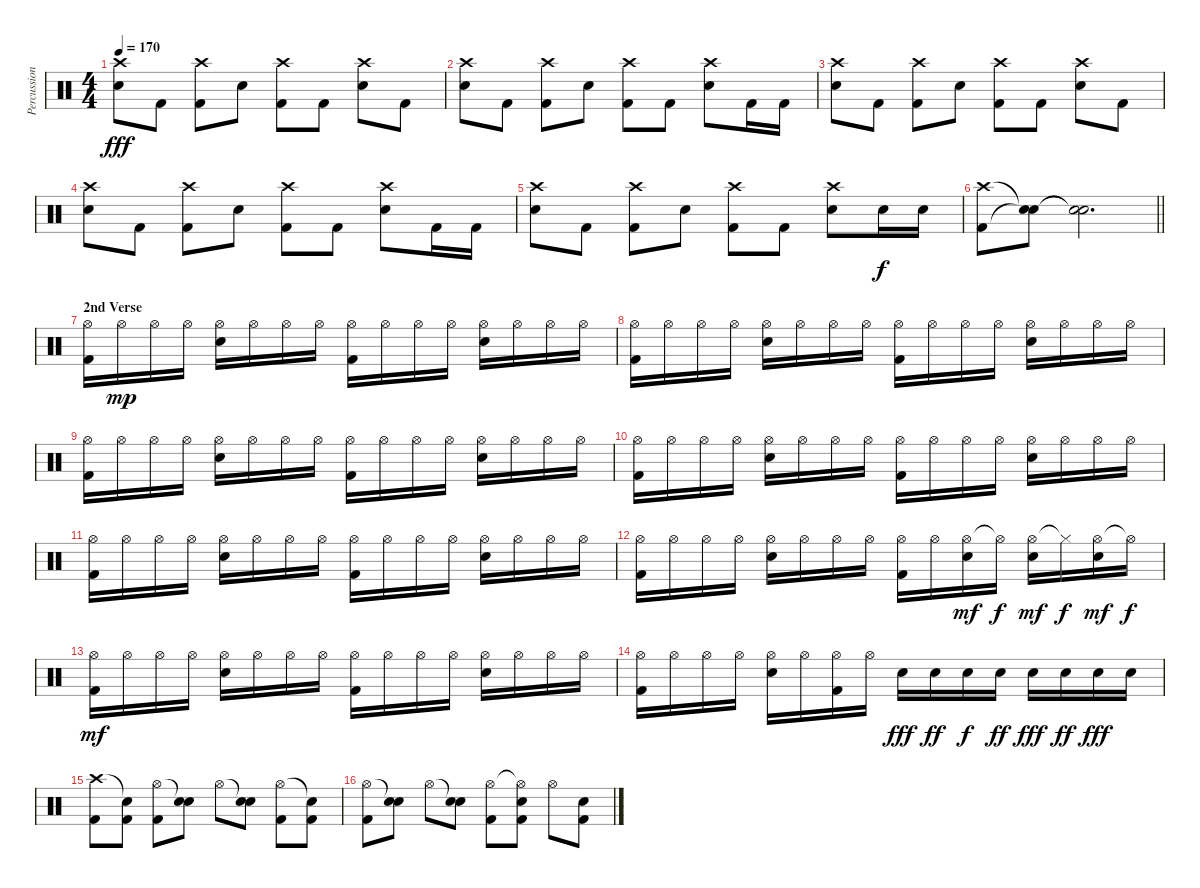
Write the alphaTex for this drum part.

\track ("Percussion" "Percussion") {instrument percussion}
\staff {score}
\articulation defaults
\ts (4 4)
\tempo 170
\clef neutral
\ks c
("Crash high (hit)" "Electric Snare (hit)").8{dy fff} "Kick (hit) 2".8 ("Crash high (hit)" "Kick (hit) 2").8 "Electric Snare (hit)".8 ("Crash high (hit)" "Kick (hit) 2").8 "Kick (hit) 2".8 ("Crash high (hit)" "Electric Snare (hit)").8 "Kick (hit) 2".8 |
("Crash high (hit)" "Electric Snare (hit)").8 "Kick (hit) 2".8 ("Crash high (hit)" "Kick (hit) 2").8 "Electric Snare (hit)".8 ("Crash high (hit)" "Kick (hit) 2").8 "Kick (hit) 2".8 ("Crash high (hit)" "Electric Snare (hit)").8 "Kick (hit) 2".16 "Kick (hit) 2".16 |
("Crash high (hit)" "Electric Snare (hit)").8 "Kick (hit) 2".8 ("Crash high (hit)" "Kick (hit) 2").8 "Electric Snare (hit)".8 ("Crash high (hit)" "Kick (hit) 2").8 "Kick (hit) 2".8 ("Crash high (hit)" "Electric Snare (hit)").8 "Kick (hit) 2".8 |
("Crash high (hit)" "Electric Snare (hit)").8 "Kick (hit) 2".8 ("Crash high (hit)" "Kick (hit) 2").8 "Electric Snare (hit)".8 ("Crash high (hit)" "Kick (hit) 2").8 "Kick (hit) 2".8 ("Crash high (hit)" "Electric Snare (hit)").8 "Kick (hit) 2".16 "Kick (hit) 2".16 |
("Crash high (hit)" "Electric Snare (hit)").8 "Kick (hit) 2".8 ("Crash high (hit)" "Kick (hit) 2").8 "Electric Snare (hit)".8 ("Crash high (hit)" "Kick (hit) 2").8 "Kick (hit) 2".8 ("Crash high (hit)" "Electric Snare (hit)").8 "Electric Snare (hit)".16{dy f} "Electric Snare (hit)".16 |
\barLineRight lightlight
("Crash high (hit)" "Kick (hit) 2").8 ("Snare (hit)"{t} "Snare (hit)"{t}).8 ("Snare (hit)"{t} "Snare (hit)"{t}).2{d} |
\section ("" "2nd Verse")
("Hi-Hat (open)" "Kick (hit) 2").16 "Hi-Hat (open)".16{dy mp} "Hi-Hat (open)".16 "Hi-Hat (open)".16 ("Hi-Hat (open)" "Electric Snare (hit)").16 "Hi-Hat (open)".16 "Hi-Hat (open)".16 "Hi-Hat (open)".16 ("Hi-Hat (open)" "Kick (hit) 2").16 "Hi-Hat (open)".16 "Hi-Hat (open)".16 "Hi-Hat (open)".16 ("Hi-Hat (open)" "Electric Snare (hit)").16 "Hi-Hat (open)".16 "Hi-Hat (open)".16 "Hi-Hat (open)".16 |
("Hi-Hat (open)" "Kick (hit) 2").16 "Hi-Hat (open)".16 "Hi-Hat (open)".16 "Hi-Hat (open)".16 ("Hi-Hat (open)" "Electric Snare (hit)").16 "Hi-Hat (open)".16 "Hi-Hat (open)".16 "Hi-Hat (open)".16 ("Hi-Hat (open)" "Kick (hit) 2").16 "Hi-Hat (open)".16 "Hi-Hat (open)".16 "Hi-Hat (open)".16 ("Hi-Hat (open)" "Electric Snare (hit)").16 "Hi-Hat (open)".16 "Hi-Hat (open)".16 "Hi-Hat (open)".16 |
("Hi-Hat (open)" "Kick (hit) 2").16 "Hi-Hat (open)".16 "Hi-Hat (open)".16 "Hi-Hat (open)".16 ("Hi-Hat (open)" "Electric Snare (hit)").16 "Hi-Hat (open)".16 "Hi-Hat (open)".16 "Hi-Hat (open)".16 ("Hi-Hat (open)" "Kick (hit) 2").16 "Hi-Hat (open)".16 "Hi-Hat (open)".16 "Hi-Hat (open)".16 ("Hi-Hat (open)" "Electric Snare (hit)").16 "Hi-Hat (open)".16 "Hi-Hat (open)".16 "Hi-Hat (open)".16 |
("Hi-Hat (open)" "Kick (hit) 2").16 "Hi-Hat (open)".16 "Hi-Hat (open)".16 "Hi-Hat (open)".16 ("Hi-Hat (open)" "Electric Snare (hit)").16 "Hi-Hat (open)".16 "Hi-Hat (open)".16 "Hi-Hat (open)".16 ("Hi-Hat (open)" "Kick (hit) 2").16 "Hi-Hat (open)".16 "Hi-Hat (open)".16 "Hi-Hat (open)".16 ("Hi-Hat (open)" "Electric Snare (hit)").16 "Hi-Hat (open)".16 "Hi-Hat (open)".16 "Hi-Hat (open)".16 |
("Hi-Hat (open)" "Kick (hit) 2").16 "Hi-Hat (open)".16 "Hi-Hat (open)".16 "Hi-Hat (open)".16 ("Hi-Hat (open)" "Electric Snare (hit)").16 "Hi-Hat (open)".16 "Hi-Hat (open)".16 "Hi-Hat (open)".16 ("Hi-Hat (open)" "Kick (hit) 2").16 "Hi-Hat (open)".16 "Hi-Hat (open)".16 "Hi-Hat (open)".16 ("Hi-Hat (open)" "Electric Snare (hit)").16 "Hi-Hat (open)".16 "Hi-Hat (open)".16 "Hi-Hat (open)".16 |
("Hi-Hat (open)" "Kick (hit) 2").16 "Hi-Hat (open)".16 "Hi-Hat (open)".16 "Hi-Hat (open)".16 ("Hi-Hat (open)" "Electric Snare (hit)").16 "Hi-Hat (open)".16 "Hi-Hat (open)".16 "Hi-Hat (open)".16 ("Hi-Hat (open)" "Kick (hit) 2").16 "Hi-Hat (open)".16 ("Hi-Hat (open)" "Electric Snare (hit)").16{dy mf} "Hi-Hat (open)"{t}.16{dy f} ("Hi-Hat (open)" "Electric Snare (hit)").16{dy mf} "Hi-Hat (closed)"{t}.16{dy f} ("Hi-Hat (open)" "Electric Snare (hit)").16{dy mf} "Hi-Hat (open)"{t}.16{dy f} |
("Hi-Hat (open)" "Kick (hit) 2").16{dy mf} "Hi-Hat (open)".16 "Hi-Hat (open)".16 "Hi-Hat (open)".16 ("Hi-Hat (open)" "Electric Snare (hit)").16 "Hi-Hat (open)".16 "Hi-Hat (open)".16 "Hi-Hat (open)".16 ("Hi-Hat (open)" "Kick (hit) 2").16 "Hi-Hat (open)".16 "Hi-Hat (open)".16 "Hi-Hat (open)".16 ("Hi-Hat (open)" "Electric Snare (hit)").16 "Hi-Hat (open)".16 "Hi-Hat (open)".16 "Hi-Hat (open)".16 |
("Hi-Hat (open)" "Kick (hit) 2").16 "Hi-Hat (open)".16 "Hi-Hat (open)".16 "Hi-Hat (open)".16 ("Hi-Hat (open)" "Electric Snare (hit)").16 "Hi-Hat (open)".16 ("Hi-Hat (open)" "Kick (hit) 2").16 "Hi-Hat (open)".16 "Electric Snare (hit)".16{dy fff} "Electric Snare (hit)".16{dy ff} "Electric Snare (hit)".16{dy f} "Electric Snare (hit)".16{dy ff} "Electric Snare (hit)".16{dy fff} "Electric Snare (hit)".16{dy ff} "Electric Snare (hit)".16{dy fff} "Electric Snare (hit)".16 |
("Crash high (hit)" "Kick (hit) 2").8 ("Snare (hit)"{t} "Kick (hit) 2").8 ("Hi-Hat (open)" "Kick (hit) 2").8 ("Snare (hit)"{t} "Electric Snare (hit)").8 "Hi-Hat (open)".8 ("Snare (hit)"{t} "Electric Snare (hit)").8 ("Hi-Hat (open)" "Kick (hit) 2").8 ("Snare (hit)"{t} "Kick (hit) 2").8 |
("Hi-Hat (open)" "Kick (hit) 2").8 ("Snare (hit)"{t} "Electric Snare (hit)").8 "Hi-Hat (open)".8 ("Snare (hit)"{t} "Electric Snare (hit)").8 ("Hi-Hat (open)" "Kick (hit) 2").8 ("Hi-Hat (open)"{t} "Electric Snare (hit)" "Kick (hit) 2").8 "Hi-Hat (open)".8 ("Electric Snare (hit)" "Kick (hit) 2").8
